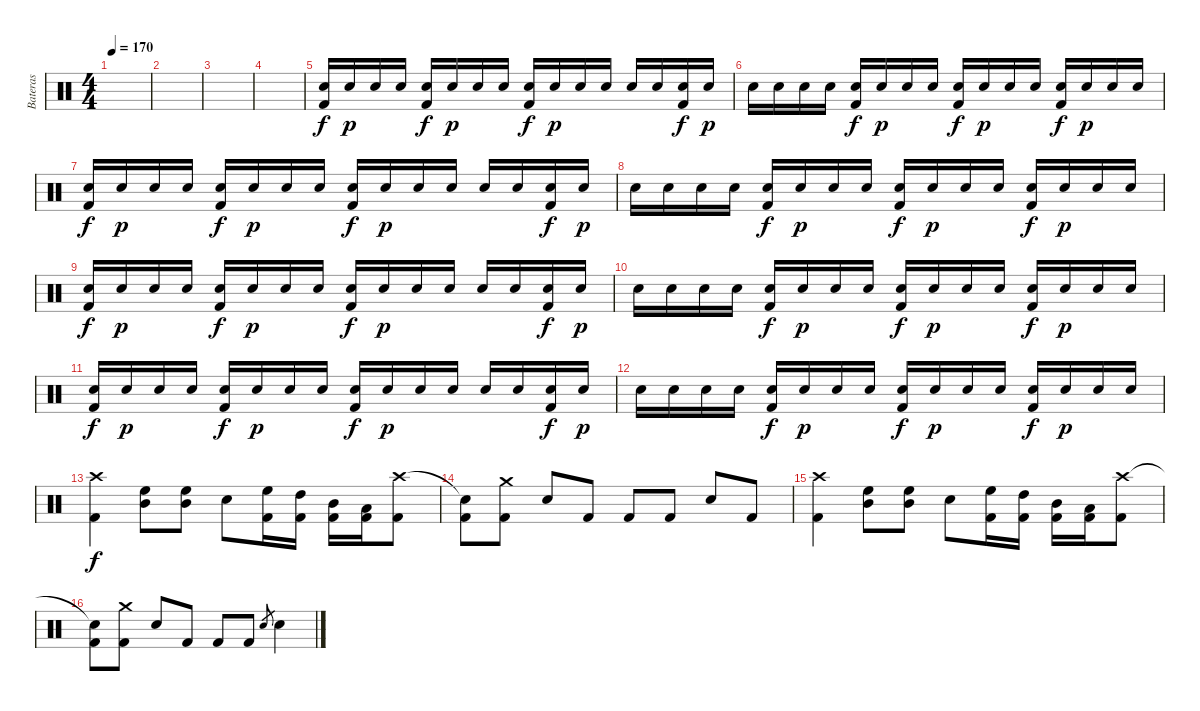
\track ("Bateras" "Bateras") {instrument percussion}
\staff {score}
\articulation defaults
\ts (4 4)
\tempo 170
\clef neutral
\ks c
|
|
|
|
("Snare (hit) 2" "Kick (hit) 2").16 "Snare (hit) 2".16{dy p} "Snare (hit) 2".16 "Snare (hit) 2".16 ("Snare (hit) 2" "Kick (hit) 2").16{dy f} "Snare (hit) 2".16{dy p} "Snare (hit) 2".16 "Snare (hit) 2".16 ("Snare (hit) 2" "Kick (hit) 2").16{dy f} "Snare (hit) 2".16{dy p} "Snare (hit) 2".16 "Snare (hit) 2".16 "Snare (hit) 2".16 "Snare (hit) 2".16 ("Snare (hit) 2" "Kick (hit) 2").16{dy f} "Snare (hit) 2".16{dy p} |
"Snare (hit) 2".16 "Snare (hit) 2".16 "Snare (hit) 2".16 "Snare (hit) 2".16 ("Snare (hit) 2" "Kick (hit) 2").16{dy f} "Snare (hit) 2".16{dy p} "Snare (hit) 2".16 "Snare (hit) 2".16 ("Snare (hit) 2" "Kick (hit) 2").16{dy f} "Snare (hit) 2".16{dy p} "Snare (hit) 2".16 "Snare (hit) 2".16 ("Snare (hit) 2" "Kick (hit) 2").16{dy f} "Snare (hit) 2".16{dy p} "Snare (hit) 2".16 "Snare (hit) 2".16 |
("Snare (hit) 2" "Kick (hit) 2").16{dy f} "Snare (hit) 2".16{dy p} "Snare (hit) 2".16 "Snare (hit) 2".16 ("Snare (hit) 2" "Kick (hit) 2").16{dy f} "Snare (hit) 2".16{dy p} "Snare (hit) 2".16 "Snare (hit) 2".16 ("Snare (hit) 2" "Kick (hit) 2").16{dy f} "Snare (hit) 2".16{dy p} "Snare (hit) 2".16 "Snare (hit) 2".16 "Snare (hit) 2".16 "Snare (hit) 2".16 ("Snare (hit) 2" "Kick (hit) 2").16{dy f} "Snare (hit) 2".16{dy p} |
"Snare (hit) 2".16 "Snare (hit) 2".16 "Snare (hit) 2".16 "Snare (hit) 2".16 ("Snare (hit) 2" "Kick (hit) 2").16{dy f} "Snare (hit) 2".16{dy p} "Snare (hit) 2".16 "Snare (hit) 2".16 ("Snare (hit) 2" "Kick (hit) 2").16{dy f} "Snare (hit) 2".16{dy p} "Snare (hit) 2".16 "Snare (hit) 2".16 ("Snare (hit) 2" "Kick (hit) 2").16{dy f} "Snare (hit) 2".16{dy p} "Snare (hit) 2".16 "Snare (hit) 2".16 |
("Snare (hit) 2" "Kick (hit) 2").16{dy f} "Snare (hit) 2".16{dy p} "Snare (hit) 2".16 "Snare (hit) 2".16 ("Snare (hit) 2" "Kick (hit) 2").16{dy f} "Snare (hit) 2".16{dy p} "Snare (hit) 2".16 "Snare (hit) 2".16 ("Snare (hit) 2" "Kick (hit) 2").16{dy f} "Snare (hit) 2".16{dy p} "Snare (hit) 2".16 "Snare (hit) 2".16 "Snare (hit) 2".16 "Snare (hit) 2".16 ("Snare (hit) 2" "Kick (hit) 2").16{dy f} "Snare (hit) 2".16{dy p} |
"Snare (hit) 2".16 "Snare (hit) 2".16 "Snare (hit) 2".16 "Snare (hit) 2".16 ("Snare (hit) 2" "Kick (hit) 2").16{dy f} "Snare (hit) 2".16{dy p} "Snare (hit) 2".16 "Snare (hit) 2".16 ("Snare (hit) 2" "Kick (hit) 2").16{dy f} "Snare (hit) 2".16{dy p} "Snare (hit) 2".16 "Snare (hit) 2".16 ("Snare (hit) 2" "Kick (hit) 2").16{dy f} "Snare (hit) 2".16{dy p} "Snare (hit) 2".16 "Snare (hit) 2".16 |
("Snare (hit) 2" "Kick (hit) 2").16{dy f} "Snare (hit) 2".16{dy p} "Snare (hit) 2".16 "Snare (hit) 2".16 ("Snare (hit) 2" "Kick (hit) 2").16{dy f} "Snare (hit) 2".16{dy p} "Snare (hit) 2".16 "Snare (hit) 2".16 ("Snare (hit) 2" "Kick (hit) 2").16{dy f} "Snare (hit) 2".16{dy p} "Snare (hit) 2".16 "Snare (hit) 2".16 "Snare (hit) 2".16 "Snare (hit) 2".16 ("Snare (hit) 2" "Kick (hit) 2").16{dy f} "Snare (hit) 2".16{dy p} |
"Snare (hit) 2".16 "Snare (hit) 2".16 "Snare (hit) 2".16 "Snare (hit) 2".16 ("Snare (hit) 2" "Kick (hit) 2").16{dy f} "Snare (hit) 2".16{dy p} "Snare (hit) 2".16 "Snare (hit) 2".16 ("Snare (hit) 2" "Kick (hit) 2").16{dy f} "Snare (hit) 2".16{dy p} "Snare (hit) 2".16 "Snare (hit) 2".16 ("Snare (hit) 2" "Kick (hit) 2").16{dy f} "Snare (hit) 2".16{dy p} "Snare (hit) 2".16 "Snare (hit) 2".16 |
("Crash high (hit)" "Kick (hit) 2").4{dy f} ("High Floor Tom (hit)" "Mid Tom (hit)").8 ("High Floor Tom (hit)" "Mid Tom (hit)").8 "Snare (hit) 2".8 ("High Floor Tom (hit)" "Kick (hit) 2").16 ("High Tom (hit)" "Kick (hit) 2").16 ("Mid Tom (hit)" "Kick (hit) 2").16 ("Low Tom (hit)" "Kick (hit) 2").16 ("Crash high (hit)" "Kick (hit) 2").8 |
("Snare (hit)"{t} "Kick (hit) 2").8 ("Crash medium (hit)" "Kick (hit) 2").8 "Snare (hit) 2".8 "Kick (hit) 2".8 "Kick (hit) 2".8 "Kick (hit) 2".8 "Snare (hit) 2".8 "Kick (hit) 2".8 |
("Crash high (hit)" "Kick (hit) 2").4 ("High Floor Tom (hit)" "Mid Tom (hit)").8 ("High Floor Tom (hit)" "Mid Tom (hit)").8 "Snare (hit) 2".8 ("High Floor Tom (hit)" "Kick (hit) 2").16 ("High Tom (hit)" "Kick (hit) 2").16 ("Mid Tom (hit)" "Kick (hit) 2").16 ("Low Tom (hit)" "Kick (hit) 2").16 ("Crash high (hit)" "Kick (hit) 2").8 |
("Snare (hit)"{t} "Kick (hit) 2").8 ("Crash medium (hit)" "Kick (hit) 2").8 "Snare (hit) 2".8 "Kick (hit) 2".8 "Kick (hit) 2".8 "Kick (hit) 2".8 "Snare (hit) 2".8{gr} "Snare (hit) 2".4
